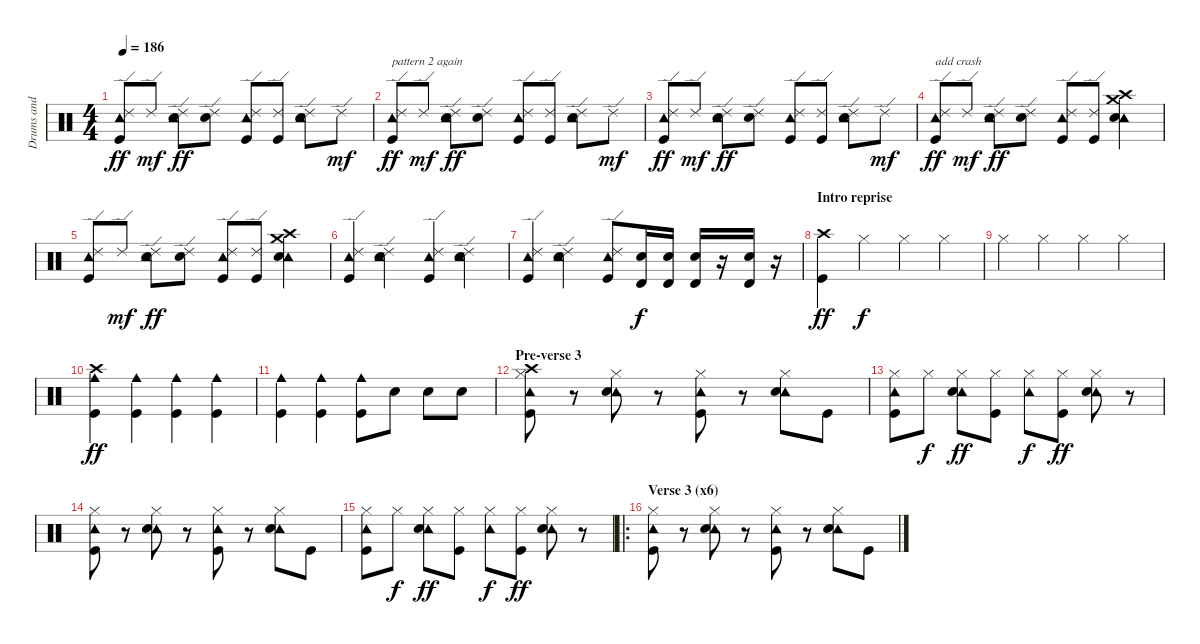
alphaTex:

\track ("Drums and Percs" "Drums and ") {instrument percussion}
\staff {score}
\articulation defaults
\ts (4 4)
\tempo 186
\clef neutral
\ks c
("Ride (edge) 2" "Tambourine (hit)" "Kick (hit)").8{dy ff} "Ride (edge) 2".8{dy mf} ("Ride (edge) 2" "Tambourine (hit)" "Electric Snare (hit)").8{dy ff} ("Ride (edge) 2" "Electric Snare (hit)").8 ("Ride (edge) 2" "Tambourine (hit)" "Kick (hit)").8 ("Ride (edge) 2" "Kick (hit)").8 ("Ride (edge) 2" "Tambourine (hit)" "Electric Snare (hit)").8 "Ride (edge) 2".8{dy mf} |
("Ride (edge) 2" "Tambourine (hit)" "Kick (hit)").8{txt "pattern 2 again" dy ff} "Ride (edge) 2".8{dy mf} ("Ride (edge) 2" "Tambourine (hit)" "Electric Snare (hit)").8{dy ff} ("Ride (edge) 2" "Electric Snare (hit)").8 ("Ride (edge) 2" "Tambourine (hit)" "Kick (hit)").8 ("Ride (edge) 2" "Kick (hit)").8 ("Ride (edge) 2" "Tambourine (hit)" "Electric Snare (hit)").8 "Ride (edge) 2".8{dy mf} |
("Ride (edge) 2" "Tambourine (hit)" "Kick (hit)").8{dy ff} "Ride (edge) 2".8{dy mf} ("Ride (edge) 2" "Tambourine (hit)" "Electric Snare (hit)").8{dy ff} ("Ride (edge) 2" "Electric Snare (hit)").8 ("Ride (edge) 2" "Tambourine (hit)" "Kick (hit)").8 ("Ride (edge) 2" "Kick (hit)").8 ("Ride (edge) 2" "Tambourine (hit)" "Electric Snare (hit)").8 "Ride (edge) 2".8{dy mf} |
("Ride (edge) 2" "Tambourine (hit)" "Kick (hit)").8{txt "add crash" dy ff} "Ride (edge) 2".8{dy mf} ("Ride (edge) 2" "Tambourine (hit)" "Electric Snare (hit)").8{dy ff} ("Ride (edge) 2" "Electric Snare (hit)").8 ("Ride (edge) 2" "Tambourine (hit)" "Kick (hit)").8 ("Ride (edge) 2" "Kick (hit)").8 ("Crash high (hit)" "Tambourine (hit)" "Crash medium (hit)" "Electric Snare (hit)").4 |
("Ride (edge) 2" "Tambourine (hit)" "Kick (hit)").8 "Ride (edge) 2".8{dy mf} ("Ride (edge) 2" "Tambourine (hit)" "Electric Snare (hit)").8{dy ff} ("Ride (edge) 2" "Electric Snare (hit)").8 ("Ride (edge) 2" "Tambourine (hit)" "Kick (hit)").8 ("Ride (edge) 2" "Kick (hit)").8 ("Crash high (hit)" "Tambourine (hit)" "Crash medium (hit)" "Electric Snare (hit)").4 |
("Ride (edge) 2" "Tambourine (hit)" "Kick (hit)").4 ("Ride (edge) 2" "Tambourine (hit)" "Electric Snare (hit)").4 ("Ride (edge) 2" "Tambourine (hit)" "Kick (hit)").4 ("Ride (edge) 2" "Tambourine (hit)" "Electric Snare (hit)").4 |
("Ride (edge) 2" "Tambourine (hit)" "Kick (hit)").4 ("Ride (edge) 2" "Tambourine (hit)" "Electric Snare (hit)").4 ("Ride (edge) 2" "Tambourine (hit)" "Kick (hit)").8 ("Timbale high (hit)" "Electric Snare (hit)").16{dy f} ("Timbale high (hit)" "Electric Snare (hit)").16 ("Timbale high (hit)" "Electric Snare (hit)").16 r.16 ("Timbale high (hit)" "Electric Snare (hit)").16 r.16 |
\section ("" "Intro reprise")
("Crash high (hit)" "Kick (hit)").4{dy ff} "Hi-Hat (closed)".4{dy f} "Hi-Hat (closed)".4 "Hi-Hat (closed)".4 |
"Hi-Hat (closed)".4 "Hi-Hat (closed)".4 "Hi-Hat (closed)".4 "Hi-Hat (closed)".4 |
("Cowbell medium (hit)" "Crash high (hit)" "Kick (hit)").4{dy ff} ("Cowbell medium (hit)" "Kick (hit)").4 ("Cowbell medium (hit)" "Kick (hit)").4 ("Cowbell medium (hit)" "Kick (hit)").4 |
("Cowbell medium (hit)" "Kick (hit)").4 ("Cowbell medium (hit)" "Kick (hit)").4 ("Cowbell medium (hit)" "Kick (hit)").8 "Electric Snare (hit)".8 "Electric Snare (hit)".8 "Electric Snare (hit)".8 |
\section ("" "Pre-verse 3")
("Hi-Hat (closed)" "Tambourine (hit)" "Crash high (hit)" "Kick (hit)").8 r.8 ("Hi-Hat (closed)" "Tambourine (hit)" "Electric Snare (hit)").8 r.8 ("Hi-Hat (closed)" "Tambourine (hit)" "Kick (hit)").8 r.8 ("Hi-Hat (closed)" "Tambourine (hit)" "Electric Snare (hit)").8 "Kick (hit)".8 |
("Hi-Hat (closed)" "Tambourine (hit)" "Kick (hit)").8 "Hi-Hat (closed)".8{dy f} ("Hi-Hat (closed)" "Tambourine (hit)" "Electric Snare (hit)").8{dy ff} ("Hi-Hat (closed)" "Kick (hit)").8 ("Hi-Hat (closed)" "Tambourine (hit)").8{dy f} ("Hi-Hat (closed)" "Kick (hit)").8{dy ff} ("Hi-Hat (closed)" "Tambourine (hit)" "Electric Snare (hit)").8 r.8 |
("Hi-Hat (closed)" "Tambourine (hit)" "Kick (hit)").8 r.8 ("Hi-Hat (closed)" "Tambourine (hit)" "Electric Snare (hit)").8 r.8 ("Hi-Hat (closed)" "Tambourine (hit)" "Kick (hit)").8 r.8 ("Hi-Hat (closed)" "Tambourine (hit)" "Electric Snare (hit)").8 "Kick (hit)".8 |
("Hi-Hat (closed)" "Tambourine (hit)" "Kick (hit)").8 "Hi-Hat (closed)".8{dy f} ("Hi-Hat (closed)" "Tambourine (hit)" "Electric Snare (hit)").8{dy ff} ("Hi-Hat (closed)" "Kick (hit)").8 ("Hi-Hat (closed)" "Tambourine (hit)").8{dy f} ("Hi-Hat (closed)" "Kick (hit)").8{dy ff} ("Hi-Hat (closed)" "Tambourine (hit)" "Electric Snare (hit)").8 r.8 |
\ro
\section ("" "Verse 3 (x6)")
("Hi-Hat (closed)" "Tambourine (hit)" "Kick (hit)").8 r.8 ("Hi-Hat (closed)" "Tambourine (hit)" "Electric Snare (hit)").8 r.8 ("Hi-Hat (closed)" "Tambourine (hit)" "Kick (hit)").8 r.8 ("Hi-Hat (closed)" "Tambourine (hit)" "Electric Snare (hit)").8 "Kick (hit)".8
